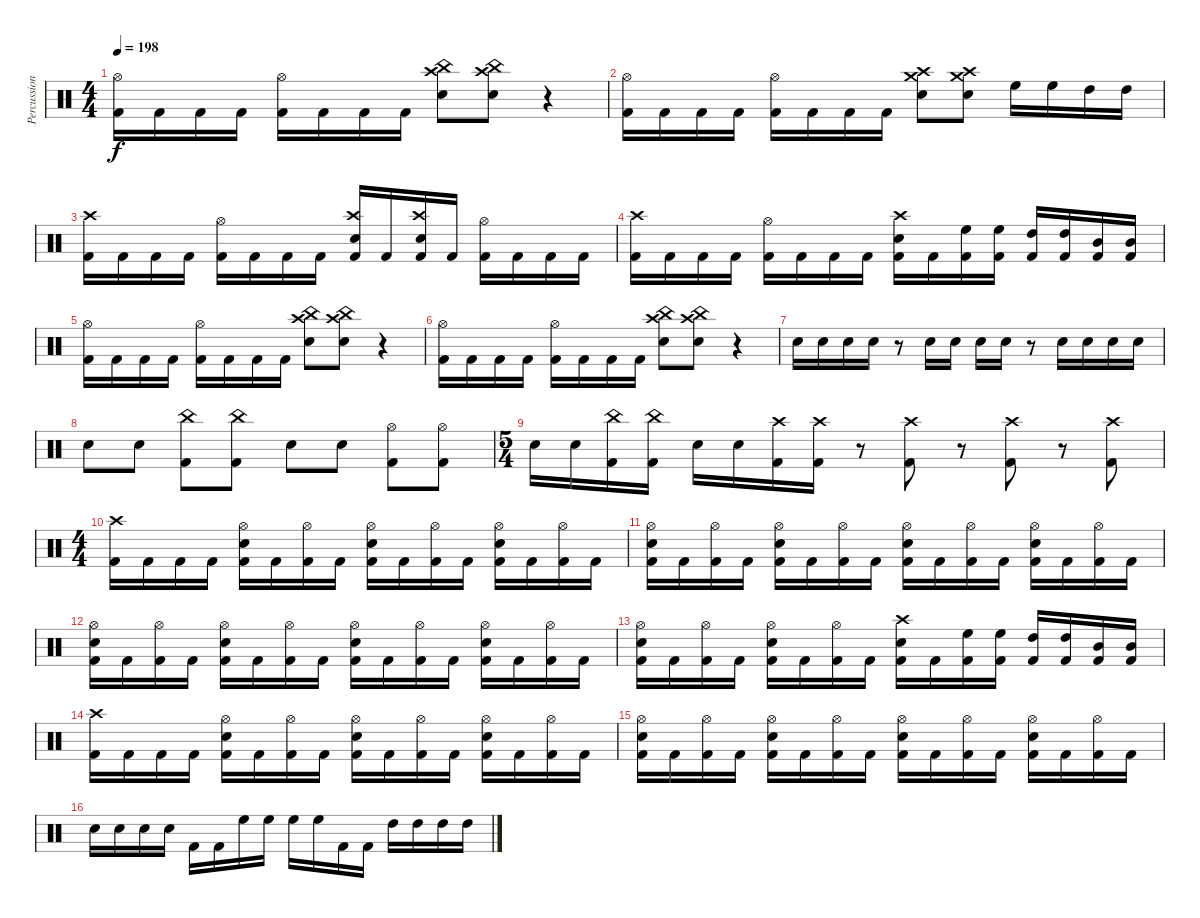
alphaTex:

\track ("Percussion" "Percussion") {instrument percussion}
\staff {score}
\articulation defaults
\ts (4 4)
\tempo 198
\clef neutral
\ks c
("Hi-Hat (open)" "Kick (hit) 2").16{dy f} "Kick (hit) 2".16 "Kick (hit) 2".16 "Kick (hit) 2".16 ("Hi-Hat (open)" "Kick (hit) 2").16 "Kick (hit) 2".16 "Kick (hit) 2".16 "Kick (hit) 2".16 ("Crash high (hit)" "China (hit)" "Electric Snare (hit)").8 ("Crash high (hit)" "China (hit)" "Electric Snare (hit)").8 r.4 |
("Hi-Hat (open)" "Kick (hit) 2").16 "Kick (hit) 2".16 "Kick (hit) 2".16 "Kick (hit) 2".16 ("Hi-Hat (open)" "Kick (hit) 2").16 "Kick (hit) 2".16 "Kick (hit) 2".16 "Kick (hit) 2".16 ("Crash high (hit)" "Crash medium (hit)" "Electric Snare (hit)").8 ("Crash high (hit)" "Crash medium (hit)" "Electric Snare (hit)").8 "High Floor Tom (hit)".16 "High Floor Tom (hit)".16 "High Tom (hit)".16 "High Tom (hit)".16 |
("Crash high (hit)" "Kick (hit) 2").16 "Kick (hit) 2".16 "Kick (hit) 2".16 "Kick (hit) 2".16 ("Hi-Hat (open)" "Kick (hit) 2").16 "Kick (hit) 2".16 "Kick (hit) 2".16 "Kick (hit) 2".16 ("Crash high (hit)" "Electric Snare (hit)" "Kick (hit) 2").16 "Kick (hit) 2".16 ("Crash high (hit)" "Electric Snare (hit)" "Kick (hit) 2").16 "Kick (hit) 2".16 ("Hi-Hat (open)" "Kick (hit) 2").16 "Kick (hit) 2".16 "Kick (hit) 2".16 "Kick (hit) 2".16 |
("Crash high (hit)" "Kick (hit) 2").16 "Kick (hit) 2".16 "Kick (hit) 2".16 "Kick (hit) 2".16 ("Hi-Hat (open)" "Kick (hit) 2").16 "Kick (hit) 2".16 "Kick (hit) 2".16 "Kick (hit) 2".16 ("Crash high (hit)" "Electric Snare (hit)" "Kick (hit) 2").16 "Kick (hit) 2".16 ("High Floor Tom (hit)" "Kick (hit) 2").16 ("High Floor Tom (hit)" "Kick (hit) 2").16 ("High Tom (hit)" "Kick (hit) 2").16 ("High Tom (hit)" "Kick (hit) 2").16 ("Mid Tom (hit)" "Kick (hit) 2").16 ("Mid Tom (hit)" "Kick (hit) 2").16 |
("Hi-Hat (open)" "Kick (hit) 2").16 "Kick (hit) 2".16 "Kick (hit) 2".16 "Kick (hit) 2".16 ("Hi-Hat (open)" "Kick (hit) 2").16 "Kick (hit) 2".16 "Kick (hit) 2".16 "Kick (hit) 2".16 ("Crash high (hit)" "China (hit)" "Electric Snare (hit)").8 ("Crash high (hit)" "China (hit)" "Electric Snare (hit)").8 r.4 |
("Hi-Hat (open)" "Kick (hit) 2").16 "Kick (hit) 2".16 "Kick (hit) 2".16 "Kick (hit) 2".16 ("Hi-Hat (open)" "Kick (hit) 2").16 "Kick (hit) 2".16 "Kick (hit) 2".16 "Kick (hit) 2".16 ("Crash high (hit)" "China (hit)" "Electric Snare (hit)").8 ("Crash high (hit)" "China (hit)" "Electric Snare (hit)").8 r.4 |
"Electric Snare (hit)".16 "Electric Snare (hit)".16 "Electric Snare (hit)".16 "Electric Snare (hit)".16 r.8 "Electric Snare (hit)".16 "Electric Snare (hit)".16 "Electric Snare (hit)".16 "Electric Snare (hit)".16 r.8 "Electric Snare (hit)".16 "Electric Snare (hit)".16 "Electric Snare (hit)".16 "Electric Snare (hit)".16 |
"Electric Snare (hit)".8 "Electric Snare (hit)".8 ("China (hit)" "Kick (hit) 2").8 ("China (hit)" "Kick (hit) 2").8 "Electric Snare (hit)".8 "Electric Snare (hit)".8 ("Hi-Hat (open)" "Kick (hit) 2").8 ("Hi-Hat (open)" "Kick (hit) 2").8 |
\ts (5 4)
"Electric Snare (hit)".16 "Electric Snare (hit)".16 ("China (hit)" "Kick (hit) 2").16 ("China (hit)" "Kick (hit) 2").16 "Electric Snare (hit)".16 "Electric Snare (hit)".16 ("Crash high (hit)" "Kick (hit) 2").16 ("Crash high (hit)" "Kick (hit) 2").16 r.8 ("Crash high (hit)" "Kick (hit) 2").8 r.8 ("Crash high (hit)" "Kick (hit) 2").8 r.8 ("Crash high (hit)" "Kick (hit) 2").8 |
\ts (4 4)
("Crash high (hit)" "Kick (hit) 2").16 "Kick (hit) 2".16 "Kick (hit) 2".16 "Kick (hit) 2".16 ("Hi-Hat (open)" "Electric Snare (hit)" "Kick (hit) 2").16 "Kick (hit) 2".16 ("Hi-Hat (open)" "Kick (hit) 2").16 "Kick (hit) 2".16 ("Hi-Hat (open)" "Electric Snare (hit)" "Kick (hit) 2").16 "Kick (hit) 2".16 ("Hi-Hat (open)" "Kick (hit) 2").16 "Kick (hit) 2".16 ("Hi-Hat (open)" "Electric Snare (hit)" "Kick (hit) 2").16 "Kick (hit) 2".16 ("Hi-Hat (open)" "Kick (hit) 2").16 "Kick (hit) 2".16 |
("Hi-Hat (open)" "Electric Snare (hit)" "Kick (hit) 2").16 "Kick (hit) 2".16 ("Hi-Hat (open)" "Kick (hit) 2").16 "Kick (hit) 2".16 ("Hi-Hat (open)" "Electric Snare (hit)" "Kick (hit) 2").16 "Kick (hit) 2".16 ("Hi-Hat (open)" "Kick (hit) 2").16 "Kick (hit) 2".16 ("Hi-Hat (open)" "Electric Snare (hit)" "Kick (hit) 2").16 "Kick (hit) 2".16 ("Hi-Hat (open)" "Kick (hit) 2").16 "Kick (hit) 2".16 ("Hi-Hat (open)" "Electric Snare (hit)" "Kick (hit) 2").16 "Kick (hit) 2".16 ("Hi-Hat (open)" "Kick (hit) 2").16 "Kick (hit) 2".16 |
("Hi-Hat (open)" "Electric Snare (hit)" "Kick (hit) 2").16 "Kick (hit) 2".16 ("Hi-Hat (open)" "Kick (hit) 2").16 "Kick (hit) 2".16 ("Hi-Hat (open)" "Electric Snare (hit)" "Kick (hit) 2").16 "Kick (hit) 2".16 ("Hi-Hat (open)" "Kick (hit) 2").16 "Kick (hit) 2".16 ("Hi-Hat (open)" "Electric Snare (hit)" "Kick (hit) 2").16 "Kick (hit) 2".16 ("Hi-Hat (open)" "Kick (hit) 2").16 "Kick (hit) 2".16 ("Hi-Hat (open)" "Electric Snare (hit)" "Kick (hit) 2").16 "Kick (hit) 2".16 ("Hi-Hat (open)" "Kick (hit) 2").16 "Kick (hit) 2".16 |
("Hi-Hat (open)" "Electric Snare (hit)" "Kick (hit) 2").16 "Kick (hit) 2".16 ("Hi-Hat (open)" "Kick (hit) 2").16 "Kick (hit) 2".16 ("Hi-Hat (open)" "Electric Snare (hit)" "Kick (hit) 2").16 "Kick (hit) 2".16 ("Hi-Hat (open)" "Kick (hit) 2").16 "Kick (hit) 2".16 ("Crash high (hit)" "Electric Snare (hit)" "Kick (hit) 2").16 "Kick (hit) 2".16 ("High Floor Tom (hit)" "Kick (hit) 2").16 ("High Floor Tom (hit)" "Kick (hit) 2").16 ("High Tom (hit)" "Kick (hit) 2").16 ("High Tom (hit)" "Kick (hit) 2").16 ("Mid Tom (hit)" "Kick (hit) 2").16 ("Mid Tom (hit)" "Kick (hit) 2").16 |
("Crash high (hit)" "Kick (hit) 2").16 "Kick (hit) 2".16 "Kick (hit) 2".16 "Kick (hit) 2".16 ("Hi-Hat (open)" "Electric Snare (hit)" "Kick (hit) 2").16 "Kick (hit) 2".16 ("Hi-Hat (open)" "Kick (hit) 2").16 "Kick (hit) 2".16 ("Hi-Hat (open)" "Electric Snare (hit)" "Kick (hit) 2").16 "Kick (hit) 2".16 ("Hi-Hat (open)" "Kick (hit) 2").16 "Kick (hit) 2".16 ("Hi-Hat (open)" "Electric Snare (hit)" "Kick (hit) 2").16 "Kick (hit) 2".16 ("Hi-Hat (open)" "Kick (hit) 2").16 "Kick (hit) 2".16 |
("Hi-Hat (open)" "Electric Snare (hit)" "Kick (hit) 2").16 "Kick (hit) 2".16 ("Hi-Hat (open)" "Kick (hit) 2").16 "Kick (hit) 2".16 ("Hi-Hat (open)" "Electric Snare (hit)" "Kick (hit) 2").16 "Kick (hit) 2".16 ("Hi-Hat (open)" "Kick (hit) 2").16 "Kick (hit) 2".16 ("Hi-Hat (open)" "Electric Snare (hit)" "Kick (hit) 2").16 "Kick (hit) 2".16 ("Hi-Hat (open)" "Kick (hit) 2").16 "Kick (hit) 2".16 ("Hi-Hat (open)" "Electric Snare (hit)" "Kick (hit) 2").16 "Kick (hit) 2".16 ("Hi-Hat (open)" "Kick (hit) 2").16 "Kick (hit) 2".16 |
"Electric Snare (hit)".16 "Electric Snare (hit)".16 "Electric Snare (hit)".16 "Electric Snare (hit)".16 "Kick (hit) 2".16 "Kick (hit) 2".16 "High Floor Tom (hit)".16 "High Floor Tom (hit)".16 "High Floor Tom (hit)".16 "High Floor Tom (hit)".16 "Kick (hit) 2".16 "Kick (hit) 2".16 "High Tom (hit)".16 "High Tom (hit)".16 "High Tom (hit)".16 "High Tom (hit)".16
